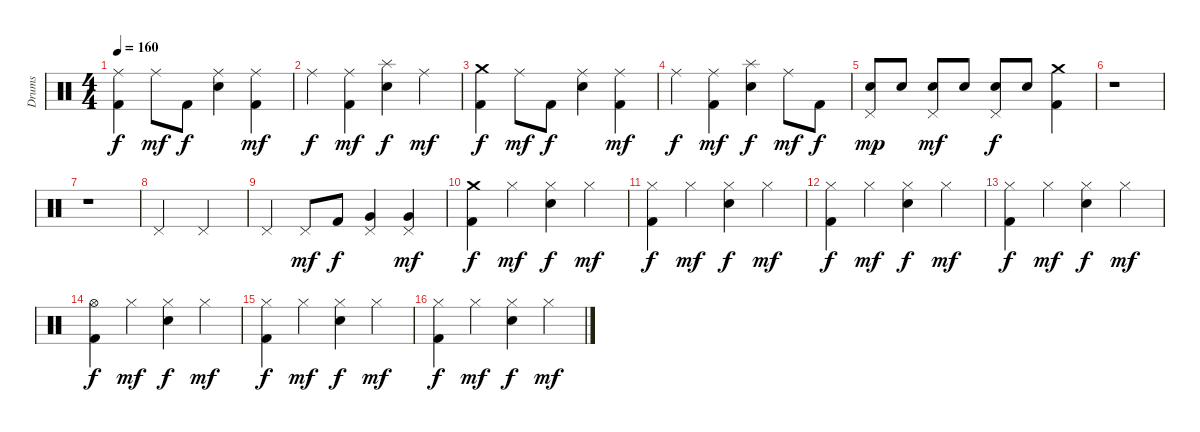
\track ("Drums" "Drums") {instrument percussion}
\staff {score}
\articulation defaults
\ts (4 4)
\tempo 160
\clef neutral
\ks c
("Ride (middle)" "Kick (hit) 2").4{dy f} "Ride (middle)".8{dy mf} "Kick (hit) 2".8{dy f} ("Ride (middle)" "Snare (hit) 2").4 ("Ride (middle)" "Kick (hit) 2").4{dy mf} |
"Ride (middle)".4{dy f} ("Ride (middle)" "Kick (hit) 2").4{dy mf} ("Splash (hit)" "Snare (hit) 2").4{dy f} "Ride (middle)".4{dy mf} |
("Crash medium (hit)" "Kick (hit) 2").4{dy f} "Ride (middle)".8{dy mf} "Kick (hit) 2".8{dy f} ("Ride (middle)" "Snare (hit) 2").4 ("Ride (middle)" "Kick (hit) 2").4{dy mf} |
"Ride (middle)".4{dy f} ("Ride (middle)" "Kick (hit) 2").4{dy mf} ("Splash (hit)" "Snare (hit) 2").4{dy f} "Ride (middle)".8{dy mf} "Kick (hit) 2".8{dy f} |
("Pedal Hi-Hat (hit)" "Snare (hit) 2").8{dy mp} "Snare (hit) 2".8 ("Pedal Hi-Hat (hit)" "Snare (hit) 2").8{dy mf} "Snare (hit) 2".8 ("Pedal Hi-Hat (hit)" "Snare (hit) 2").8{dy f} "Snare (hit) 2".8 ("Crash medium (hit)" "Kick (hit) 2").4 |
r.1 |
r.1 |
"Pedal Hi-Hat (hit)".2 "Pedal Hi-Hat (hit)".2 |
"Pedal Hi-Hat (hit)".4 "Pedal Hi-Hat (hit)".8{dy mf} "Kick (hit) 2".8{dy f} ("Pedal Hi-Hat (hit)" "Very Low Tom (hit)").4 ("Pedal Hi-Hat (hit)" "Very Low Tom (hit)").4{dy mf} |
("Crash medium (hit)" "Kick (hit) 2").4{dy f} "Hi-Hat (closed)".4{dy mf} ("Hi-Hat (closed)" "Snare (hit) 2").4{dy f} "Hi-Hat (closed)".4{dy mf} |
("Hi-Hat (closed)" "Kick (hit) 2").4{dy f} "Hi-Hat (closed)".4{dy mf} ("Hi-Hat (closed)" "Snare (hit) 2").4{dy f} "Hi-Hat (closed)".4{dy mf} |
("Hi-Hat (closed)" "Kick (hit) 2").4{dy f} "Hi-Hat (closed)".4{dy mf} ("Hi-Hat (closed)" "Snare (hit) 2").4{dy f} "Hi-Hat (closed)".4{dy mf} |
("Hi-Hat (closed)" "Kick (hit) 2").4{dy f} "Hi-Hat (closed)".4{dy mf} ("Hi-Hat (closed)" "Snare (hit) 2").4{dy f} "Hi-Hat (closed)".4{dy mf} |
("Hi-Hat (open)" "Kick (hit) 2").4{dy f} "Hi-Hat (closed)".4{dy mf} ("Hi-Hat (closed)" "Snare (hit) 2").4{dy f} "Hi-Hat (closed)".4{dy mf} |
("Hi-Hat (closed)" "Kick (hit) 2").4{dy f} "Hi-Hat (closed)".4{dy mf} ("Hi-Hat (closed)" "Snare (hit) 2").4{dy f} "Hi-Hat (closed)".4{dy mf} |
("Hi-Hat (closed)" "Kick (hit) 2").4{dy f} "Hi-Hat (closed)".4{dy mf} ("Hi-Hat (closed)" "Snare (hit) 2").4{dy f} "Hi-Hat (closed)".4{dy mf}
